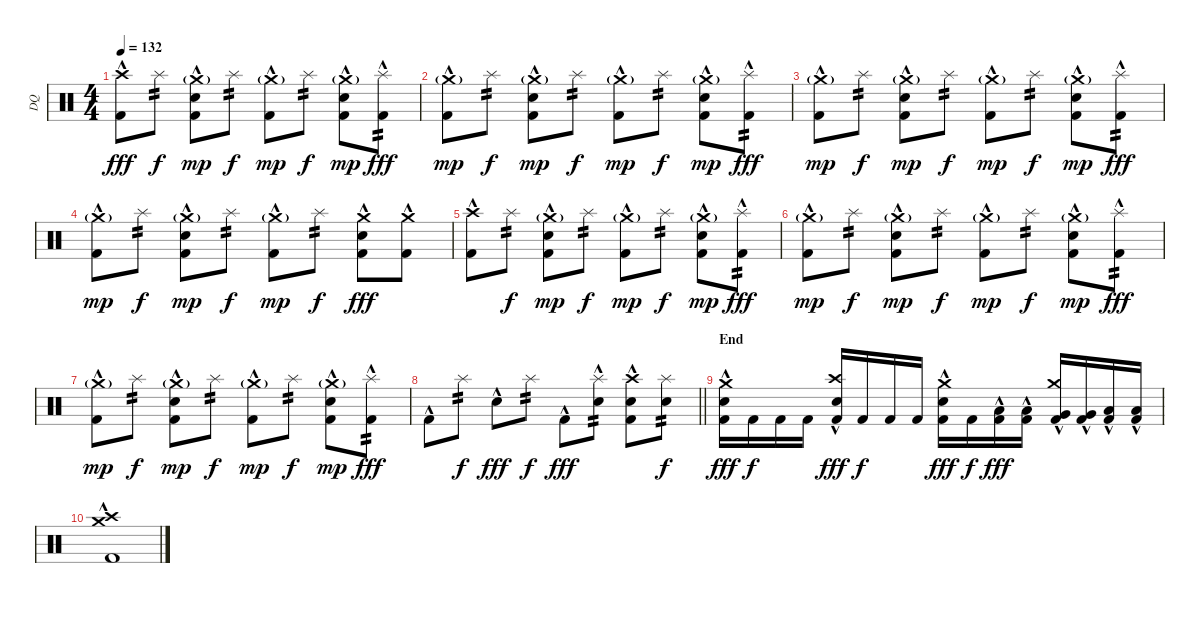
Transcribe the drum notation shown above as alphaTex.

\track ("DQ" "DQ") {instrument percussion}
\staff {score}
\articulation defaults
\ts (4 4)
\section ("" "")
\tempo 132
\clef neutral
\ks c
("Kick (hit) 2"{hac} "Crash high (hit)").8{dy fff} "Splash (hit)".8{tp 2 dy f} ("Kick (hit) 2"{hac} "Snare (hit) 2"{hac} "Crash medium (hit)"{g}).8{dy mp} "Splash (hit)".8{tp 2 dy f} ("Kick (hit) 2"{hac} "Crash medium (hit)"{g}).8{dy mp} "Splash (hit)".8{tp 2 dy f} ("Kick (hit) 2"{hac} "Snare (hit) 2"{hac} "Crash medium (hit)"{g}).8{dy mp} ("Kick (hit) 2"{hac} "Splash (hit)").8{tp 2 dy fff} |
("Kick (hit) 2"{hac} "Crash medium (hit)"{g}).8{dy mp} "Splash (hit)".8{tp 2 dy f} ("Kick (hit) 2"{hac} "Snare (hit) 2"{hac} "Crash medium (hit)"{g}).8{dy mp} "Splash (hit)".8{tp 2 dy f} ("Kick (hit) 2"{hac} "Crash medium (hit)"{g}).8{dy mp} "Splash (hit)".8{tp 2 dy f} ("Kick (hit) 2"{hac} "Snare (hit) 2"{hac} "Crash medium (hit)"{g}).8{dy mp} ("Kick (hit) 2"{hac} "Splash (hit)").8{tp 2 dy fff} |
("Kick (hit) 2"{hac} "Crash medium (hit)"{g}).8{dy mp} "Splash (hit)".8{tp 2 dy f} ("Kick (hit) 2"{hac} "Snare (hit) 2"{hac} "Crash medium (hit)"{g}).8{dy mp} "Splash (hit)".8{tp 2 dy f} ("Kick (hit) 2"{hac} "Crash medium (hit)"{g}).8{dy mp} "Splash (hit)".8{tp 2 dy f} ("Kick (hit) 2"{hac} "Snare (hit) 2"{hac} "Crash medium (hit)"{g}).8{dy mp} ("Kick (hit) 2"{hac} "Splash (hit)").8{tp 2 dy fff} |
("Kick (hit) 2"{hac} "Crash medium (hit)"{g}).8{dy mp} "Splash (hit)".8{tp 2 dy f} ("Kick (hit) 2"{hac} "Snare (hit) 2"{hac} "Crash medium (hit)"{g}).8{dy mp} "Splash (hit)".8{tp 2 dy f} ("Kick (hit) 2"{hac} "Crash medium (hit)"{g}).8{dy mp} "Splash (hit)".8{tp 2 dy f} ("Kick (hit) 2"{hac} "Snare (hit) 2"{hac} "Crash medium (hit)").8{dy fff} ("Kick (hit) 2"{hac} "Crash medium (hit)").8 |
("Kick (hit) 2"{hac} "Crash high (hit)").8 "Splash (hit)".8{tp 2 dy f} ("Kick (hit) 2"{hac} "Snare (hit) 2"{hac} "Crash medium (hit)"{g}).8{dy mp} "Splash (hit)".8{tp 2 dy f} ("Kick (hit) 2"{hac} "Crash medium (hit)"{g}).8{dy mp} "Splash (hit)".8{tp 2 dy f} ("Kick (hit) 2"{hac} "Snare (hit) 2"{hac} "Crash medium (hit)"{g}).8{dy mp} ("Kick (hit) 2"{hac} "Splash (hit)").8{tp 2 dy fff} |
("Kick (hit) 2"{hac} "Crash medium (hit)"{g}).8{dy mp} "Splash (hit)".8{tp 2 dy f} ("Kick (hit) 2"{hac} "Snare (hit) 2"{hac} "Crash medium (hit)"{g}).8{dy mp} "Splash (hit)".8{tp 2 dy f} ("Kick (hit) 2"{hac} "Crash medium (hit)"{g}).8{dy mp} "Splash (hit)".8{tp 2 dy f} ("Kick (hit) 2"{hac} "Snare (hit) 2"{hac} "Crash medium (hit)"{g}).8{dy mp} ("Kick (hit) 2"{hac} "Splash (hit)").8{tp 2 dy fff} |
("Kick (hit) 2"{hac} "Crash medium (hit)"{g}).8{dy mp} "Splash (hit)".8{tp 2 dy f} ("Kick (hit) 2"{hac} "Snare (hit) 2"{hac} "Crash medium (hit)"{g}).8{dy mp} "Splash (hit)".8{tp 2 dy f} ("Kick (hit) 2"{hac} "Crash medium (hit)"{g}).8{dy mp} "Splash (hit)".8{tp 2 dy f} ("Kick (hit) 2"{hac} "Snare (hit) 2"{hac} "Crash medium (hit)"{g}).8{dy mp} ("Kick (hit) 2"{hac} "Splash (hit)").8{tp 2 dy fff} |
\barLineRight lightlight "Kick (hit) 2"{hac}.8 "Splash (hit)".8{tp 2 dy f} "Snare (hit) 2"{hac}.8{dy fff} "Splash (hit)".8{tp 2 dy f} "Kick (hit) 2"{hac}.8{dy fff}
("Snare (hit) 2"{hac} "Splash (hit)").8{tp 2} ("Kick (hit) 2"{hac} "Snare (hit) 2" "Crash high (hit)").8 ("Snare (hit) 2" "Splash (hit)").8{tp 2 dy f} |
\section ("" "End")
("Kick (hit) 2" "Snare (hit) 2"{hac} "Crash medium (hit)").16{dy fff} "Kick (hit) 2".16{dy f} "Kick (hit) 2".16 "Kick (hit) 2".16 ("Kick (hit) 2" "Snare (hit) 2"{hac} "Crash high (hit)").16{dy fff} "Kick (hit) 2".16{dy f} "Kick (hit) 2".16 "Kick (hit) 2".16 ("Kick (hit) 2" "Snare (hit) 2"{hac} "Crash medium (hit)").16{dy fff} "Kick (hit) 2".16{dy f} ("Kick (hit) 2" "Low Tom (hit)"{hac}).16{dy fff} ("Kick (hit) 2" "Low Tom (hit)"{hac}).16 ("Kick (hit) 2" "Very Low Tom (hit)"{hac} "Crash medium (hit)").16 ("Kick (hit) 2" "Very Low Tom (hit)"{hac}).16 ("Kick (hit) 2" "Low Floor Tom (hit)"{hac}).16 ("Kick (hit) 2" "Low Floor Tom (hit)"{hac}).16 |
("Kick (hit) 2"{hac} "Crash medium (hit)"{hac} "Crash high (hit)").1
